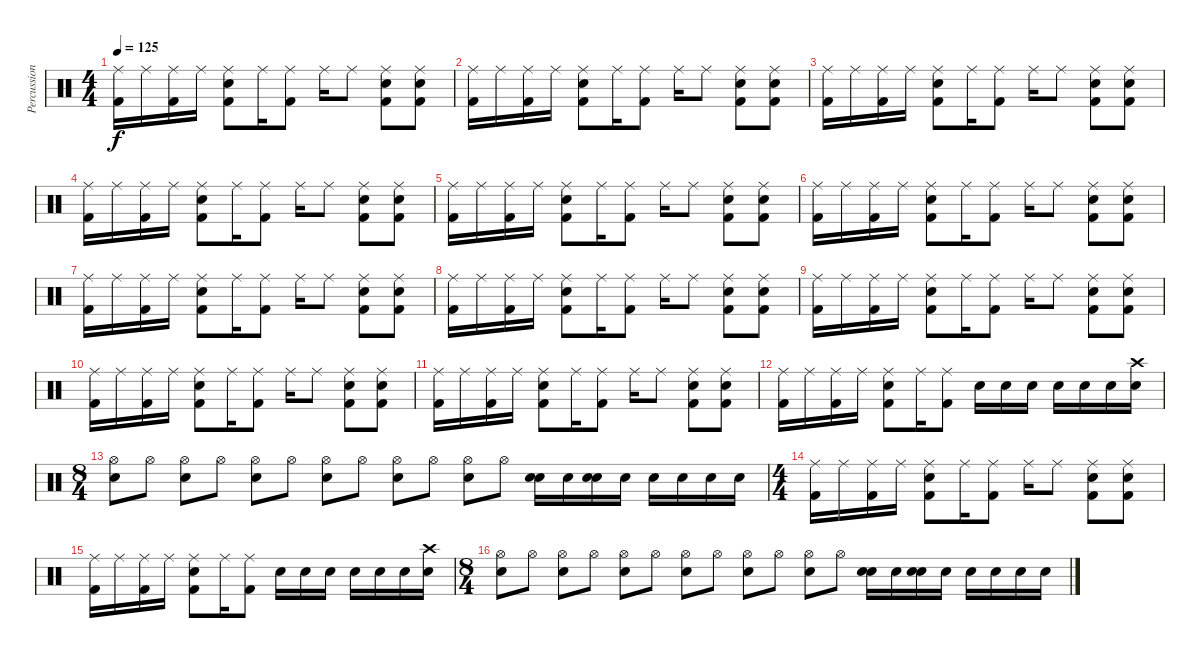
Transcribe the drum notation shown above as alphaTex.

\track ("Percussions" "Percussion") {instrument percussion}
\staff {score}
\articulation defaults
\ts (4 4)
\tempo 125
\clef neutral
\ks c
("Ride (middle)" "Kick (hit) 2").16{dy f} "Ride (middle)".16 ("Ride (middle)" "Kick (hit) 2").16 "Ride (middle)".16 ("Ride (middle)" "Snare (hit) 2" "Kick (hit) 2").8 "Ride (middle)".16 ("Ride (middle)" "Kick (hit) 2").8 "Ride (middle)".16 "Ride (middle)".8 ("Ride (middle)" "Snare (hit) 2" "Kick (hit) 2").8 ("Ride (middle)" "Snare (hit) 2" "Kick (hit) 2").8 |
("Ride (middle)" "Kick (hit) 2").16 "Ride (middle)".16 ("Ride (middle)" "Kick (hit) 2").16 "Ride (middle)".16 ("Ride (middle)" "Snare (hit) 2" "Kick (hit) 2").8 "Ride (middle)".16 ("Ride (middle)" "Kick (hit) 2").8 "Ride (middle)".16 "Ride (middle)".8 ("Ride (middle)" "Snare (hit) 2" "Kick (hit) 2").8 ("Ride (middle)" "Snare (hit) 2" "Kick (hit) 2").8 |
("Ride (middle)" "Kick (hit) 2").16 "Ride (middle)".16 ("Ride (middle)" "Kick (hit) 2").16 "Ride (middle)".16 ("Ride (middle)" "Snare (hit) 2" "Kick (hit) 2").8 "Ride (middle)".16 ("Ride (middle)" "Kick (hit) 2").8 "Ride (middle)".16 "Ride (middle)".8 ("Ride (middle)" "Snare (hit) 2" "Kick (hit) 2").8 ("Ride (middle)" "Snare (hit) 2" "Kick (hit) 2").8 |
("Ride (middle)" "Kick (hit) 2").16 "Ride (middle)".16 ("Ride (middle)" "Kick (hit) 2").16 "Ride (middle)".16 ("Ride (middle)" "Snare (hit) 2" "Kick (hit) 2").8 "Ride (middle)".16 ("Ride (middle)" "Kick (hit) 2").8 "Ride (middle)".16 "Ride (middle)".8 ("Ride (middle)" "Snare (hit) 2" "Kick (hit) 2").8 ("Ride (middle)" "Snare (hit) 2" "Kick (hit) 2").8 |
("Ride (middle)" "Kick (hit) 2").16 "Ride (middle)".16 ("Ride (middle)" "Kick (hit) 2").16 "Ride (middle)".16 ("Ride (middle)" "Snare (hit) 2" "Kick (hit) 2").8 "Ride (middle)".16 ("Ride (middle)" "Kick (hit) 2").8 "Ride (middle)".16 "Ride (middle)".8 ("Ride (middle)" "Snare (hit) 2" "Kick (hit) 2").8 ("Ride (middle)" "Snare (hit) 2" "Kick (hit) 2").8 |
("Ride (middle)" "Kick (hit) 2").16 "Ride (middle)".16 ("Ride (middle)" "Kick (hit) 2").16 "Ride (middle)".16 ("Ride (middle)" "Snare (hit) 2" "Kick (hit) 2").8 "Ride (middle)".16 ("Ride (middle)" "Kick (hit) 2").8 "Ride (middle)".16 "Ride (middle)".8 ("Ride (middle)" "Snare (hit) 2" "Kick (hit) 2").8 ("Ride (middle)" "Snare (hit) 2" "Kick (hit) 2").8 |
("Ride (middle)" "Kick (hit) 2").16 "Ride (middle)".16 ("Ride (middle)" "Kick (hit) 2").16 "Ride (middle)".16 ("Ride (middle)" "Snare (hit) 2" "Kick (hit) 2").8 "Ride (middle)".16 ("Ride (middle)" "Kick (hit) 2").8 "Ride (middle)".16 "Ride (middle)".8 ("Ride (middle)" "Snare (hit) 2" "Kick (hit) 2").8 ("Ride (middle)" "Snare (hit) 2" "Kick (hit) 2").8 |
("Ride (middle)" "Kick (hit) 2").16 "Ride (middle)".16 ("Ride (middle)" "Kick (hit) 2").16 "Ride (middle)".16 ("Ride (middle)" "Snare (hit) 2" "Kick (hit) 2").8 "Ride (middle)".16 ("Ride (middle)" "Kick (hit) 2").8 "Ride (middle)".16 "Ride (middle)".8 ("Ride (middle)" "Snare (hit) 2" "Kick (hit) 2").8 ("Ride (middle)" "Snare (hit) 2" "Kick (hit) 2").8 |
("Ride (middle)" "Kick (hit) 2").16 "Ride (middle)".16 ("Ride (middle)" "Kick (hit) 2").16 "Ride (middle)".16 ("Ride (middle)" "Snare (hit) 2" "Kick (hit) 2").8 "Ride (middle)".16 ("Ride (middle)" "Kick (hit) 2").8 "Ride (middle)".16 "Ride (middle)".8 ("Ride (middle)" "Snare (hit) 2" "Kick (hit) 2").8 ("Ride (middle)" "Snare (hit) 2" "Kick (hit) 2").8 |
("Ride (middle)" "Kick (hit) 2").16 "Ride (middle)".16 ("Ride (middle)" "Kick (hit) 2").16 "Ride (middle)".16 ("Ride (middle)" "Snare (hit) 2" "Kick (hit) 2").8 "Ride (middle)".16 ("Ride (middle)" "Kick (hit) 2").8 "Ride (middle)".16 "Ride (middle)".8 ("Ride (middle)" "Snare (hit) 2" "Kick (hit) 2").8 ("Ride (middle)" "Snare (hit) 2" "Kick (hit) 2").8 |
("Ride (middle)" "Kick (hit) 2").16 "Ride (middle)".16 ("Ride (middle)" "Kick (hit) 2").16 "Ride (middle)".16 ("Ride (middle)" "Snare (hit) 2" "Kick (hit) 2").8 "Ride (middle)".16 ("Ride (middle)" "Kick (hit) 2").8 "Ride (middle)".16 "Ride (middle)".8 ("Ride (middle)" "Snare (hit) 2" "Kick (hit) 2").8 ("Ride (middle)" "Snare (hit) 2" "Kick (hit) 2").8 |
("Ride (middle)" "Kick (hit) 2").16 "Ride (middle)".16 ("Ride (middle)" "Kick (hit) 2").16 "Ride (middle)".16 ("Ride (middle)" "Snare (hit) 2" "Kick (hit) 2").8 "Ride (middle)".16 ("Ride (middle)" "Kick (hit) 2").8 "Snare (hit) 2".16 "Snare (hit) 2".16 "Snare (hit) 2".16 "Snare (hit) 2".16 "Snare (hit) 2".16 "Snare (hit) 2".16 ("Snare (hit) 2" "Crash high (hit)").16 |
\ts (8 4)
("Hi-Hat (open)" "Snare (hit) 2").8 "Hi-Hat (open)".8 ("Hi-Hat (open)" "Snare (hit) 2").8 "Hi-Hat (open)".8 ("Hi-Hat (open)" "Snare (hit) 2").8 "Hi-Hat (open)".8 ("Hi-Hat (open)" "Snare (hit) 2").8 "Hi-Hat (open)".8 ("Hi-Hat (open)" "Snare (hit) 2").8 "Hi-Hat (open)".8 ("Hi-Hat (open)" "Snare (hit) 2").8 "Hi-Hat (open)".8 ("Snare (hit) 2" "Snare (hit) 2").16 "Snare (hit) 2".16 ("Snare (hit) 2" "Snare (hit) 2").16 "Snare (hit) 2".16 "Snare (hit) 2".16 "Snare (hit) 2".16 "Snare (hit) 2".16 "Snare (hit) 2".16 |
\ts (4 4)
("Ride (middle)" "Kick (hit) 2").16 "Ride (middle)".16 ("Ride (middle)" "Kick (hit) 2").16 "Ride (middle)".16 ("Ride (middle)" "Snare (hit) 2" "Kick (hit) 2").8 "Ride (middle)".16 ("Ride (middle)" "Kick (hit) 2").8 "Ride (middle)".16 "Ride (middle)".8 ("Ride (middle)" "Snare (hit) 2" "Kick (hit) 2").8 ("Ride (middle)" "Snare (hit) 2" "Kick (hit) 2").8 |
("Ride (middle)" "Kick (hit) 2").16 "Ride (middle)".16 ("Ride (middle)" "Kick (hit) 2").16 "Ride (middle)".16 ("Ride (middle)" "Snare (hit) 2" "Kick (hit) 2").8 "Ride (middle)".16 ("Ride (middle)" "Kick (hit) 2").8 "Snare (hit) 2".16 "Snare (hit) 2".16 "Snare (hit) 2".16 "Snare (hit) 2".16 "Snare (hit) 2".16 "Snare (hit) 2".16 ("Snare (hit) 2" "Crash high (hit)").16 |
\ts (8 4)
("Hi-Hat (open)" "Snare (hit) 2").8 "Hi-Hat (open)".8 ("Hi-Hat (open)" "Snare (hit) 2").8 "Hi-Hat (open)".8 ("Hi-Hat (open)" "Snare (hit) 2").8 "Hi-Hat (open)".8 ("Hi-Hat (open)" "Snare (hit) 2").8 "Hi-Hat (open)".8 ("Hi-Hat (open)" "Snare (hit) 2").8 "Hi-Hat (open)".8 ("Hi-Hat (open)" "Snare (hit) 2").8 "Hi-Hat (open)".8 ("Snare (hit) 2" "Snare (hit) 2").16 "Snare (hit) 2".16 ("Snare (hit) 2" "Snare (hit) 2").16 "Snare (hit) 2".16 "Snare (hit) 2".16 "Snare (hit) 2".16 "Snare (hit) 2".16 "Snare (hit) 2".16
